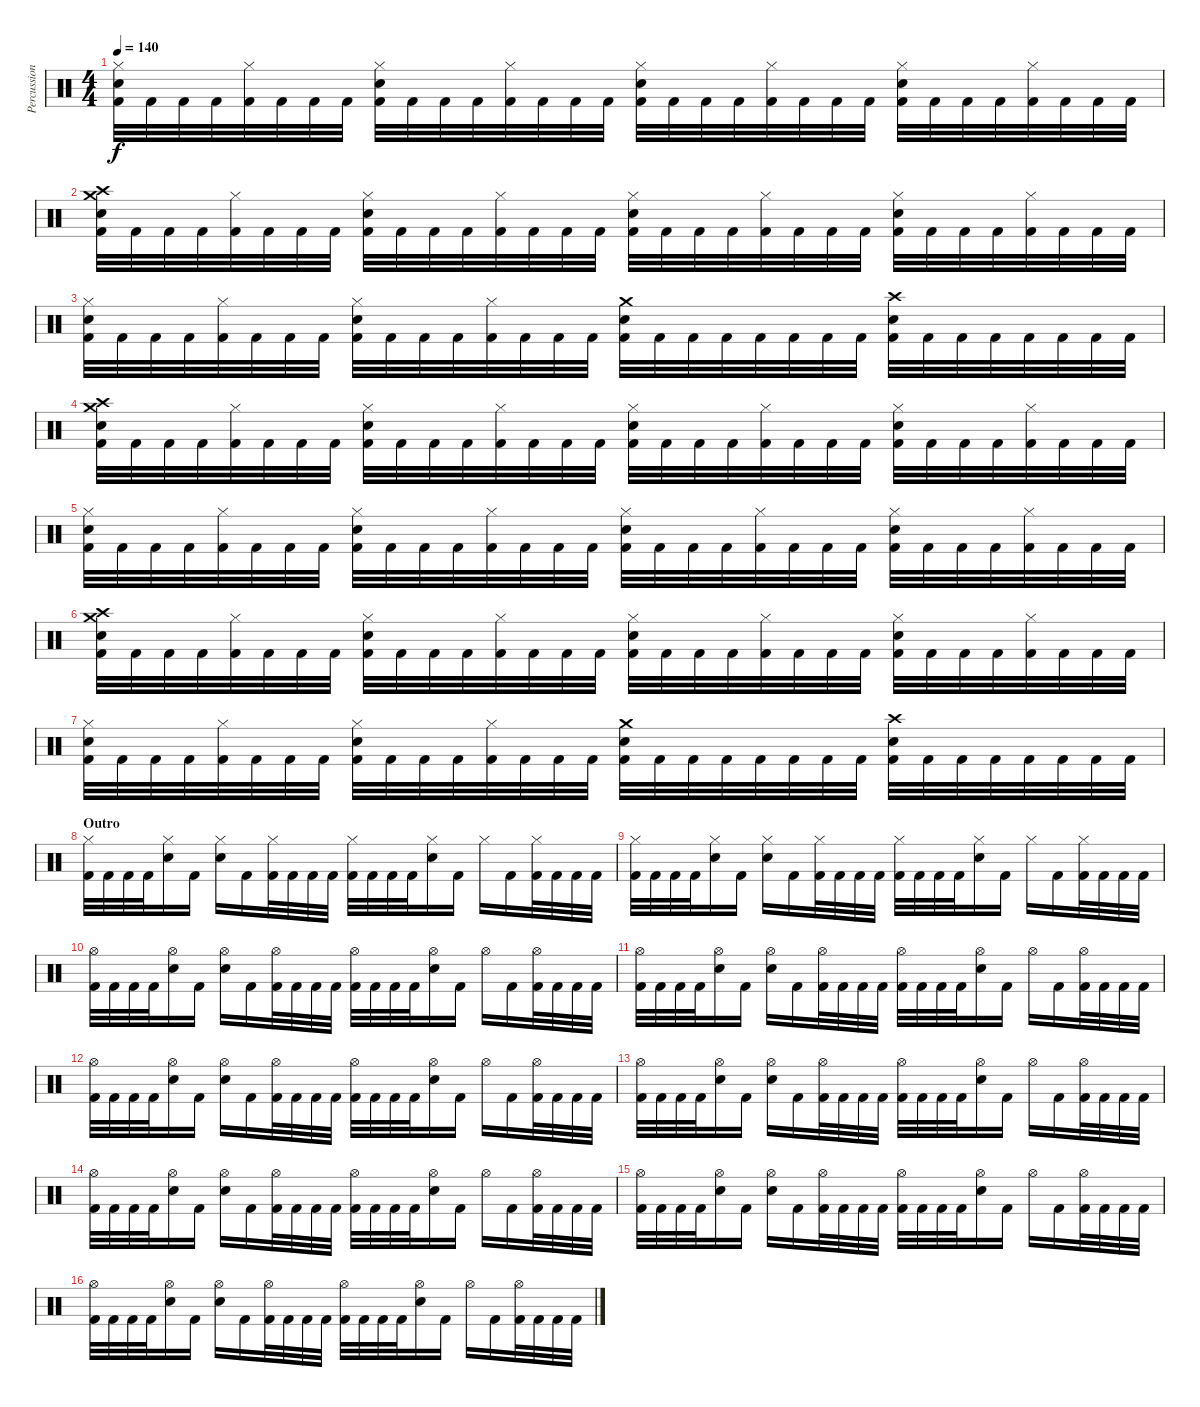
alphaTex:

\track ("Percussion" "Percussion") {instrument percussion}
\staff {score}
\articulation defaults
\ts (4 4)
\tempo 140
\clef neutral
\ks c
("Hi-Hat (closed)" "Electric Snare (hit)" "Kick (hit) 2").32{dy f} "Kick (hit) 2".32 "Kick (hit) 2".32 "Kick (hit) 2".32 ("Hi-Hat (closed)" "Kick (hit) 2").32 "Kick (hit) 2".32 "Kick (hit) 2".32 "Kick (hit) 2".32 ("Hi-Hat (closed)" "Electric Snare (hit)" "Kick (hit) 2").32 "Kick (hit) 2".32 "Kick (hit) 2".32 "Kick (hit) 2".32 ("Hi-Hat (closed)" "Kick (hit) 2").32 "Kick (hit) 2".32 "Kick (hit) 2".32 "Kick (hit) 2".32 ("Hi-Hat (closed)" "Electric Snare (hit)" "Kick (hit) 2").32 "Kick (hit) 2".32 "Kick (hit) 2".32 "Kick (hit) 2".32 ("Hi-Hat (closed)" "Kick (hit) 2").32 "Kick (hit) 2".32 "Kick (hit) 2".32 "Kick (hit) 2".32 ("Hi-Hat (closed)" "Electric Snare (hit)" "Kick (hit) 2").32 "Kick (hit) 2".32 "Kick (hit) 2".32 "Kick (hit) 2".32 ("Hi-Hat (closed)" "Kick (hit) 2").32 "Kick (hit) 2".32 "Kick (hit) 2".32 "Kick (hit) 2".32 |
("Crash medium (hit)" "Crash high (hit)" "Electric Snare (hit)" "Kick (hit) 2").32 "Kick (hit) 2".32 "Kick (hit) 2".32 "Kick (hit) 2".32 ("Hi-Hat (closed)" "Kick (hit) 2").32 "Kick (hit) 2".32 "Kick (hit) 2".32 "Kick (hit) 2".32 ("Hi-Hat (closed)" "Electric Snare (hit)" "Kick (hit) 2").32 "Kick (hit) 2".32 "Kick (hit) 2".32 "Kick (hit) 2".32 ("Hi-Hat (closed)" "Kick (hit) 2").32 "Kick (hit) 2".32 "Kick (hit) 2".32 "Kick (hit) 2".32 ("Hi-Hat (closed)" "Electric Snare (hit)" "Kick (hit) 2").32 "Kick (hit) 2".32 "Kick (hit) 2".32 "Kick (hit) 2".32 ("Hi-Hat (closed)" "Kick (hit) 2").32 "Kick (hit) 2".32 "Kick (hit) 2".32 "Kick (hit) 2".32 ("Hi-Hat (closed)" "Electric Snare (hit)" "Kick (hit) 2").32 "Kick (hit) 2".32 "Kick (hit) 2".32 "Kick (hit) 2".32 ("Hi-Hat (closed)" "Kick (hit) 2").32 "Kick (hit) 2".32 "Kick (hit) 2".32 "Kick (hit) 2".32 |
("Hi-Hat (closed)" "Electric Snare (hit)" "Kick (hit) 2").32 "Kick (hit) 2".32 "Kick (hit) 2".32 "Kick (hit) 2".32 ("Hi-Hat (closed)" "Kick (hit) 2").32 "Kick (hit) 2".32 "Kick (hit) 2".32 "Kick (hit) 2".32 ("Hi-Hat (closed)" "Electric Snare (hit)" "Kick (hit) 2").32 "Kick (hit) 2".32 "Kick (hit) 2".32 "Kick (hit) 2".32 ("Hi-Hat (closed)" "Kick (hit) 2").32 "Kick (hit) 2".32 "Kick (hit) 2".32 "Kick (hit) 2".32 ("Crash medium (hit)" "Electric Snare (hit)" "Kick (hit) 2").32 "Kick (hit) 2".32 "Kick (hit) 2".32 "Kick (hit) 2".32 "Kick (hit) 2".32 "Kick (hit) 2".32 "Kick (hit) 2".32 "Kick (hit) 2".32 ("Crash high (hit)" "Electric Snare (hit)" "Kick (hit) 2").32 "Kick (hit) 2".32 "Kick (hit) 2".32 "Kick (hit) 2".32 "Kick (hit) 2".32 "Kick (hit) 2".32 "Kick (hit) 2".32 "Kick (hit) 2".32 |
("Crash medium (hit)" "Crash high (hit)" "Electric Snare (hit)" "Kick (hit) 2").32 "Kick (hit) 2".32 "Kick (hit) 2".32 "Kick (hit) 2".32 ("Hi-Hat (closed)" "Kick (hit) 2").32 "Kick (hit) 2".32 "Kick (hit) 2".32 "Kick (hit) 2".32 ("Hi-Hat (closed)" "Electric Snare (hit)" "Kick (hit) 2").32 "Kick (hit) 2".32 "Kick (hit) 2".32 "Kick (hit) 2".32 ("Hi-Hat (closed)" "Kick (hit) 2").32 "Kick (hit) 2".32 "Kick (hit) 2".32 "Kick (hit) 2".32 ("Hi-Hat (closed)" "Electric Snare (hit)" "Kick (hit) 2").32 "Kick (hit) 2".32 "Kick (hit) 2".32 "Kick (hit) 2".32 ("Hi-Hat (closed)" "Kick (hit) 2").32 "Kick (hit) 2".32 "Kick (hit) 2".32 "Kick (hit) 2".32 ("Hi-Hat (closed)" "Electric Snare (hit)" "Kick (hit) 2").32 "Kick (hit) 2".32 "Kick (hit) 2".32 "Kick (hit) 2".32 ("Hi-Hat (closed)" "Kick (hit) 2").32 "Kick (hit) 2".32 "Kick (hit) 2".32 "Kick (hit) 2".32 |
("Hi-Hat (closed)" "Electric Snare (hit)" "Kick (hit) 2").32 "Kick (hit) 2".32 "Kick (hit) 2".32 "Kick (hit) 2".32 ("Hi-Hat (closed)" "Kick (hit) 2").32 "Kick (hit) 2".32 "Kick (hit) 2".32 "Kick (hit) 2".32 ("Hi-Hat (closed)" "Electric Snare (hit)" "Kick (hit) 2").32 "Kick (hit) 2".32 "Kick (hit) 2".32 "Kick (hit) 2".32 ("Hi-Hat (closed)" "Kick (hit) 2").32 "Kick (hit) 2".32 "Kick (hit) 2".32 "Kick (hit) 2".32 ("Hi-Hat (closed)" "Electric Snare (hit)" "Kick (hit) 2").32 "Kick (hit) 2".32 "Kick (hit) 2".32 "Kick (hit) 2".32 ("Hi-Hat (closed)" "Kick (hit) 2").32 "Kick (hit) 2".32 "Kick (hit) 2".32 "Kick (hit) 2".32 ("Hi-Hat (closed)" "Electric Snare (hit)" "Kick (hit) 2").32 "Kick (hit) 2".32 "Kick (hit) 2".32 "Kick (hit) 2".32 ("Hi-Hat (closed)" "Kick (hit) 2").32 "Kick (hit) 2".32 "Kick (hit) 2".32 "Kick (hit) 2".32 |
("Crash medium (hit)" "Crash high (hit)" "Electric Snare (hit)" "Kick (hit) 2").32 "Kick (hit) 2".32 "Kick (hit) 2".32 "Kick (hit) 2".32 ("Hi-Hat (closed)" "Kick (hit) 2").32 "Kick (hit) 2".32 "Kick (hit) 2".32 "Kick (hit) 2".32 ("Hi-Hat (closed)" "Electric Snare (hit)" "Kick (hit) 2").32 "Kick (hit) 2".32 "Kick (hit) 2".32 "Kick (hit) 2".32 ("Hi-Hat (closed)" "Kick (hit) 2").32 "Kick (hit) 2".32 "Kick (hit) 2".32 "Kick (hit) 2".32 ("Hi-Hat (closed)" "Electric Snare (hit)" "Kick (hit) 2").32 "Kick (hit) 2".32 "Kick (hit) 2".32 "Kick (hit) 2".32 ("Hi-Hat (closed)" "Kick (hit) 2").32 "Kick (hit) 2".32 "Kick (hit) 2".32 "Kick (hit) 2".32 ("Hi-Hat (closed)" "Electric Snare (hit)" "Kick (hit) 2").32 "Kick (hit) 2".32 "Kick (hit) 2".32 "Kick (hit) 2".32 ("Hi-Hat (closed)" "Kick (hit) 2").32 "Kick (hit) 2".32 "Kick (hit) 2".32 "Kick (hit) 2".32 |
("Hi-Hat (closed)" "Electric Snare (hit)" "Kick (hit) 2").32 "Kick (hit) 2".32 "Kick (hit) 2".32 "Kick (hit) 2".32 ("Hi-Hat (closed)" "Kick (hit) 2").32 "Kick (hit) 2".32 "Kick (hit) 2".32 "Kick (hit) 2".32 ("Hi-Hat (closed)" "Electric Snare (hit)" "Kick (hit) 2").32 "Kick (hit) 2".32 "Kick (hit) 2".32 "Kick (hit) 2".32 ("Hi-Hat (closed)" "Kick (hit) 2").32 "Kick (hit) 2".32 "Kick (hit) 2".32 "Kick (hit) 2".32 ("Crash medium (hit)" "Electric Snare (hit)" "Kick (hit) 2").32 "Kick (hit) 2".32 "Kick (hit) 2".32 "Kick (hit) 2".32 "Kick (hit) 2".32 "Kick (hit) 2".32 "Kick (hit) 2".32 "Kick (hit) 2".32 ("Crash high (hit)" "Electric Snare (hit)" "Kick (hit) 2").32 "Kick (hit) 2".32 "Kick (hit) 2".32 "Kick (hit) 2".32 "Kick (hit) 2".32 "Kick (hit) 2".32 "Kick (hit) 2".32 "Kick (hit) 2".32 |
\section ("" "Outro")
("Hi-Hat (closed)" "Kick (hit) 2").32 "Kick (hit) 2".32 "Kick (hit) 2".32 "Kick (hit) 2".32 ("Hi-Hat (closed)" "Electric Snare (hit)").16 "Kick (hit) 2".16 ("Hi-Hat (closed)" "Electric Snare (hit)").16 "Kick (hit) 2".16 ("Hi-Hat (closed)" "Kick (hit) 2").32 "Kick (hit) 2".32 "Kick (hit) 2".32 "Kick (hit) 2".32 ("Hi-Hat (closed)" "Kick (hit) 2").32 "Kick (hit) 2".32 "Kick (hit) 2".32 "Kick (hit) 2".32 ("Hi-Hat (closed)" "Electric Snare (hit)").16 "Kick (hit) 2".16 "Hi-Hat (closed)".16 "Kick (hit) 2".16 ("Hi-Hat (closed)" "Kick (hit) 2").32 "Kick (hit) 2".32 "Kick (hit) 2".32 "Kick (hit) 2".32 |
("Hi-Hat (closed)" "Kick (hit) 2").32 "Kick (hit) 2".32 "Kick (hit) 2".32 "Kick (hit) 2".32 ("Hi-Hat (closed)" "Electric Snare (hit)").16 "Kick (hit) 2".16 ("Hi-Hat (closed)" "Electric Snare (hit)").16 "Kick (hit) 2".16 ("Hi-Hat (closed)" "Kick (hit) 2").32 "Kick (hit) 2".32 "Kick (hit) 2".32 "Kick (hit) 2".32 ("Hi-Hat (closed)" "Kick (hit) 2").32 "Kick (hit) 2".32 "Kick (hit) 2".32 "Kick (hit) 2".32 ("Hi-Hat (closed)" "Electric Snare (hit)").16 "Kick (hit) 2".16 "Hi-Hat (closed)".16 "Kick (hit) 2".16 ("Hi-Hat (closed)" "Kick (hit) 2").32 "Kick (hit) 2".32 "Kick (hit) 2".32 "Kick (hit) 2".32 |
("Hi-Hat (open)" "Kick (hit) 2").32 "Kick (hit) 2".32 "Kick (hit) 2".32 "Kick (hit) 2".32 ("Hi-Hat (open)" "Electric Snare (hit)").16 "Kick (hit) 2".16 ("Hi-Hat (open)" "Electric Snare (hit)").16 "Kick (hit) 2".16 ("Hi-Hat (open)" "Kick (hit) 2").32 "Kick (hit) 2".32 "Kick (hit) 2".32 "Kick (hit) 2".32 ("Hi-Hat (open)" "Kick (hit) 2").32 "Kick (hit) 2".32 "Kick (hit) 2".32 "Kick (hit) 2".32 ("Hi-Hat (open)" "Electric Snare (hit)").16 "Kick (hit) 2".16 "Hi-Hat (open)".16 "Kick (hit) 2".16 ("Hi-Hat (open)" "Kick (hit) 2").32 "Kick (hit) 2".32 "Kick (hit) 2".32 "Kick (hit) 2".32 |
("Hi-Hat (open)" "Kick (hit) 2").32 "Kick (hit) 2".32 "Kick (hit) 2".32 "Kick (hit) 2".32 ("Hi-Hat (open)" "Electric Snare (hit)").16 "Kick (hit) 2".16 ("Hi-Hat (open)" "Electric Snare (hit)").16 "Kick (hit) 2".16 ("Hi-Hat (open)" "Kick (hit) 2").32 "Kick (hit) 2".32 "Kick (hit) 2".32 "Kick (hit) 2".32 ("Hi-Hat (open)" "Kick (hit) 2").32 "Kick (hit) 2".32 "Kick (hit) 2".32 "Kick (hit) 2".32 ("Hi-Hat (open)" "Electric Snare (hit)").16 "Kick (hit) 2".16 "Hi-Hat (open)".16 "Kick (hit) 2".16 ("Hi-Hat (open)" "Kick (hit) 2").32 "Kick (hit) 2".32 "Kick (hit) 2".32 "Kick (hit) 2".32 |
("Hi-Hat (open)" "Kick (hit) 2").32 "Kick (hit) 2".32 "Kick (hit) 2".32 "Kick (hit) 2".32 ("Hi-Hat (open)" "Electric Snare (hit)").16 "Kick (hit) 2".16 ("Hi-Hat (open)" "Electric Snare (hit)").16 "Kick (hit) 2".16 ("Hi-Hat (open)" "Kick (hit) 2").32 "Kick (hit) 2".32 "Kick (hit) 2".32 "Kick (hit) 2".32 ("Hi-Hat (open)" "Kick (hit) 2").32 "Kick (hit) 2".32 "Kick (hit) 2".32 "Kick (hit) 2".32 ("Hi-Hat (open)" "Electric Snare (hit)").16 "Kick (hit) 2".16 "Hi-Hat (open)".16 "Kick (hit) 2".16 ("Hi-Hat (open)" "Kick (hit) 2").32 "Kick (hit) 2".32 "Kick (hit) 2".32 "Kick (hit) 2".32 |
("Hi-Hat (open)" "Kick (hit) 2").32 "Kick (hit) 2".32 "Kick (hit) 2".32 "Kick (hit) 2".32 ("Hi-Hat (open)" "Electric Snare (hit)").16 "Kick (hit) 2".16 ("Hi-Hat (open)" "Electric Snare (hit)").16 "Kick (hit) 2".16 ("Hi-Hat (open)" "Kick (hit) 2").32 "Kick (hit) 2".32 "Kick (hit) 2".32 "Kick (hit) 2".32 ("Hi-Hat (open)" "Kick (hit) 2").32 "Kick (hit) 2".32 "Kick (hit) 2".32 "Kick (hit) 2".32 ("Hi-Hat (open)" "Electric Snare (hit)").16 "Kick (hit) 2".16 "Hi-Hat (open)".16 "Kick (hit) 2".16 ("Hi-Hat (open)" "Kick (hit) 2").32 "Kick (hit) 2".32 "Kick (hit) 2".32 "Kick (hit) 2".32 |
("Hi-Hat (open)" "Kick (hit) 2").32 "Kick (hit) 2".32 "Kick (hit) 2".32 "Kick (hit) 2".32 ("Hi-Hat (open)" "Electric Snare (hit)").16 "Kick (hit) 2".16 ("Hi-Hat (open)" "Electric Snare (hit)").16 "Kick (hit) 2".16 ("Hi-Hat (open)" "Kick (hit) 2").32 "Kick (hit) 2".32 "Kick (hit) 2".32 "Kick (hit) 2".32 ("Hi-Hat (open)" "Kick (hit) 2").32 "Kick (hit) 2".32 "Kick (hit) 2".32 "Kick (hit) 2".32 ("Hi-Hat (open)" "Electric Snare (hit)").16 "Kick (hit) 2".16 "Hi-Hat (open)".16 "Kick (hit) 2".16 ("Hi-Hat (open)" "Kick (hit) 2").32 "Kick (hit) 2".32 "Kick (hit) 2".32 "Kick (hit) 2".32 |
("Hi-Hat (open)" "Kick (hit) 2").32 "Kick (hit) 2".32 "Kick (hit) 2".32 "Kick (hit) 2".32 ("Hi-Hat (open)" "Electric Snare (hit)").16 "Kick (hit) 2".16 ("Hi-Hat (open)" "Electric Snare (hit)").16 "Kick (hit) 2".16 ("Hi-Hat (open)" "Kick (hit) 2").32 "Kick (hit) 2".32 "Kick (hit) 2".32 "Kick (hit) 2".32 ("Hi-Hat (open)" "Kick (hit) 2").32 "Kick (hit) 2".32 "Kick (hit) 2".32 "Kick (hit) 2".32 ("Hi-Hat (open)" "Electric Snare (hit)").16 "Kick (hit) 2".16 "Hi-Hat (open)".16 "Kick (hit) 2".16 ("Hi-Hat (open)" "Kick (hit) 2").32 "Kick (hit) 2".32 "Kick (hit) 2".32 "Kick (hit) 2".32 |
("Hi-Hat (open)" "Kick (hit) 2").32 "Kick (hit) 2".32 "Kick (hit) 2".32 "Kick (hit) 2".32 ("Hi-Hat (open)" "Electric Snare (hit)").16 "Kick (hit) 2".16 ("Hi-Hat (open)" "Electric Snare (hit)").16 "Kick (hit) 2".16 ("Hi-Hat (open)" "Kick (hit) 2").32 "Kick (hit) 2".32 "Kick (hit) 2".32 "Kick (hit) 2".32 ("Hi-Hat (open)" "Kick (hit) 2").32 "Kick (hit) 2".32 "Kick (hit) 2".32 "Kick (hit) 2".32 ("Hi-Hat (open)" "Electric Snare (hit)").16 "Kick (hit) 2".16 "Hi-Hat (open)".16 "Kick (hit) 2".16 ("Hi-Hat (open)" "Kick (hit) 2").32 "Kick (hit) 2".32 "Kick (hit) 2".32 "Kick (hit) 2".32
